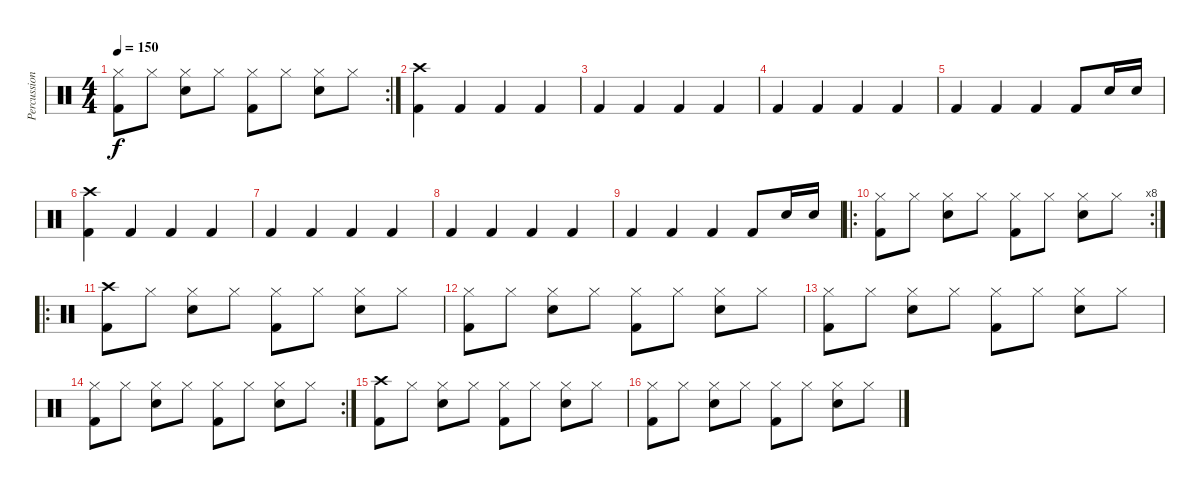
\track ("Percussion" "Percussion") {instrument percussion}
\staff {score}
\articulation defaults
\rc 2
\ts (4 4)
\tempo 150
\clef neutral
\ks c
("Hi-Hat (closed)" "Kick (hit) 2").8{dy f} "Hi-Hat (closed)".8 ("Hi-Hat (closed)" "Snare (hit) 2").8 "Hi-Hat (closed)".8 ("Hi-Hat (closed)" "Kick (hit) 2").8 "Hi-Hat (closed)".8 ("Hi-Hat (closed)" "Snare (hit) 2").8 "Hi-Hat (closed)".8 |
("Crash high (hit)" "Kick (hit) 2").4 "Kick (hit) 2".4 "Kick (hit) 2".4 "Kick (hit) 2".4 |
"Kick (hit) 2".4 "Kick (hit) 2".4 "Kick (hit) 2".4 "Kick (hit) 2".4 |
"Kick (hit) 2".4 "Kick (hit) 2".4 "Kick (hit) 2".4 "Kick (hit) 2".4 |
"Kick (hit) 2".4 "Kick (hit) 2".4 "Kick (hit) 2".4 "Kick (hit) 2".8 "Snare (hit) 2".16 "Snare (hit) 2".16 |
("Crash high (hit)" "Kick (hit) 2").4 "Kick (hit) 2".4 "Kick (hit) 2".4 "Kick (hit) 2".4 |
"Kick (hit) 2".4 "Kick (hit) 2".4 "Kick (hit) 2".4 "Kick (hit) 2".4 |
"Kick (hit) 2".4 "Kick (hit) 2".4 "Kick (hit) 2".4 "Kick (hit) 2".4 |
"Kick (hit) 2".4 "Kick (hit) 2".4 "Kick (hit) 2".4 "Kick (hit) 2".8 "Snare (hit) 2".16 "Snare (hit) 2".16 |
\ro
\rc 8
("Hi-Hat (closed)" "Kick (hit) 2").8 "Hi-Hat (closed)".8 ("Hi-Hat (closed)" "Snare (hit) 2").8 "Hi-Hat (closed)".8 ("Hi-Hat (closed)" "Kick (hit) 2").8 "Hi-Hat (closed)".8 ("Hi-Hat (closed)" "Snare (hit) 2").8 "Hi-Hat (closed)".8 |
\ro
("Crash high (hit)" "Kick (hit) 2").8 "Hi-Hat (closed)".8 ("Hi-Hat (closed)" "Snare (hit) 2").8 "Hi-Hat (closed)".8 ("Hi-Hat (closed)" "Kick (hit) 2").8 "Hi-Hat (closed)".8 ("Hi-Hat (closed)" "Snare (hit) 2").8 "Hi-Hat (closed)".8 |
("Hi-Hat (closed)" "Kick (hit) 2").8 "Hi-Hat (closed)".8 ("Hi-Hat (closed)" "Snare (hit) 2").8 "Hi-Hat (closed)".8 ("Hi-Hat (closed)" "Kick (hit) 2").8 "Hi-Hat (closed)".8 ("Hi-Hat (closed)" "Snare (hit) 2").8 "Hi-Hat (closed)".8 |
("Hi-Hat (closed)" "Kick (hit) 2").8 "Hi-Hat (closed)".8 ("Hi-Hat (closed)" "Snare (hit) 2").8 "Hi-Hat (closed)".8 ("Hi-Hat (closed)" "Kick (hit) 2").8 "Hi-Hat (closed)".8 ("Hi-Hat (closed)" "Snare (hit) 2").8 "Hi-Hat (closed)".8 |
\rc 2
("Hi-Hat (closed)" "Kick (hit) 2").8 "Hi-Hat (closed)".8 ("Hi-Hat (closed)" "Snare (hit) 2").8 "Hi-Hat (closed)".8 ("Hi-Hat (closed)" "Kick (hit) 2").8 "Hi-Hat (closed)".8 ("Hi-Hat (closed)" "Snare (hit) 2").8 "Hi-Hat (closed)".8 |
("Crash high (hit)" "Kick (hit) 2").8 "Hi-Hat (closed)".8 ("Hi-Hat (closed)" "Snare (hit) 2").8 "Hi-Hat (closed)".8 ("Hi-Hat (closed)" "Kick (hit) 2").8 "Hi-Hat (closed)".8 ("Hi-Hat (closed)" "Snare (hit) 2").8 "Hi-Hat (closed)".8 |
("Hi-Hat (closed)" "Kick (hit) 2").8 "Hi-Hat (closed)".8 ("Hi-Hat (closed)" "Snare (hit) 2").8 "Hi-Hat (closed)".8 ("Hi-Hat (closed)" "Kick (hit) 2").8 "Hi-Hat (closed)".8 ("Hi-Hat (closed)" "Snare (hit) 2").8 "Hi-Hat (closed)".8
